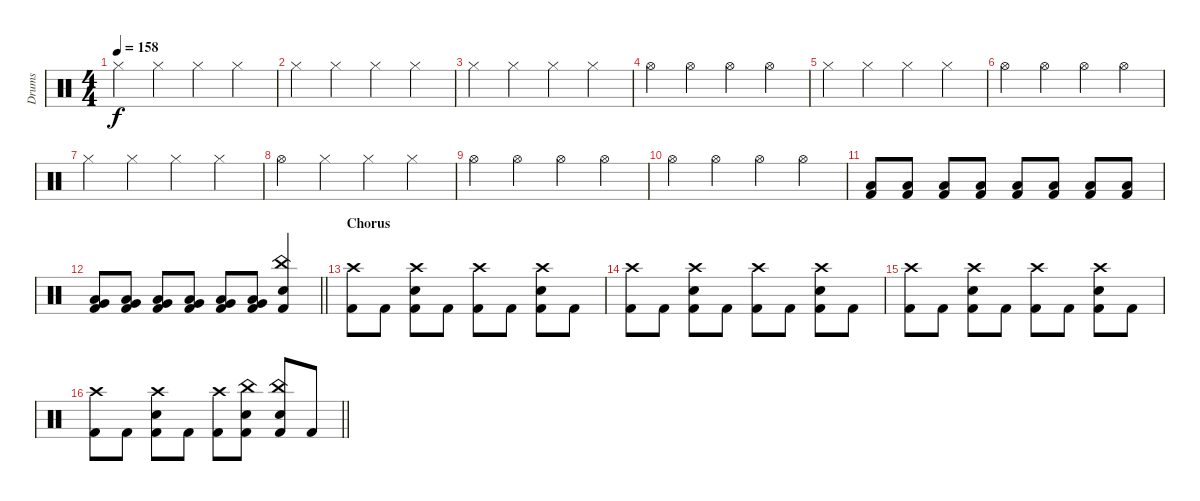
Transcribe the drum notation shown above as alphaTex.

\track ("Drums" "Drums") {instrument percussion}
\staff {score}
\articulation defaults
\ts (4 4)
\tempo 158
\clef neutral
\ks c "Hi-Hat (closed)".4{dy f} "Hi-Hat (closed)".4 "Hi-Hat (closed)".4 "Hi-Hat (closed)".4
|
"Hi-Hat (closed)".4 "Hi-Hat (closed)".4 "Hi-Hat (closed)".4 "Hi-Hat (closed)".4 |
"Hi-Hat (closed)".4 "Hi-Hat (closed)".4 "Hi-Hat (closed)".4 "Hi-Hat (closed)".4 |
"Hi-Hat (open)".4 "Hi-Hat (open)".4 "Hi-Hat (open)".4 "Hi-Hat (open)".4 |
"Hi-Hat (closed)".4 "Hi-Hat (closed)".4 "Hi-Hat (closed)".4 "Hi-Hat (closed)".4 |
"Hi-Hat (open)".4 "Hi-Hat (open)".4 "Hi-Hat (open)".4 "Hi-Hat (open)".4 |
"Hi-Hat (closed)".4 "Hi-Hat (closed)".4 "Hi-Hat (closed)".4 "Hi-Hat (closed)".4 |
"Hi-Hat (open)".4 "Hi-Hat (closed)".4 "Hi-Hat (closed)".4 "Hi-Hat (closed)".4 |
"Hi-Hat (open)".4 "Hi-Hat (open)".4 "Hi-Hat (open)".4 "Hi-Hat (open)".4 |
"Hi-Hat (open)".4 "Hi-Hat (open)".4 "Hi-Hat (open)".4 "Hi-Hat (open)".4 |
("Low Floor Tom (hit)" "Kick (hit) 2").8 ("Low Floor Tom (hit)" "Kick (hit) 2").8 ("Low Floor Tom (hit)" "Kick (hit) 2").8 ("Low Floor Tom (hit)" "Kick (hit) 2").8 ("Low Floor Tom (hit)" "Kick (hit) 2").8 ("Low Floor Tom (hit)" "Kick (hit) 2").8 ("Low Floor Tom (hit)" "Kick (hit) 2").8 ("Low Floor Tom (hit)" "Kick (hit) 2").8 |
\barLineRight lightlight
("Very Low Tom (hit)" "Low Floor Tom (hit)" "Kick (hit) 2").8 ("Very Low Tom (hit)" "Low Floor Tom (hit)" "Kick (hit) 2").8 ("Very Low Tom (hit)" "Low Floor Tom (hit)" "Kick (hit) 2").8 ("Very Low Tom (hit)" "Low Floor Tom (hit)" "Kick (hit) 2").8 ("Very Low Tom (hit)" "Low Floor Tom (hit)" "Kick (hit) 2").8 ("Very Low Tom (hit)" "Low Floor Tom (hit)" "Kick (hit) 2").8 ("China (hit)" "Snare (hit) 2" "Kick (hit) 2").4 |
\section ("" "Chorus")
("Crash high (hit)" "Kick (hit) 2").8 "Kick (hit) 2".8 ("Crash high (hit)" "Snare (hit) 2" "Kick (hit) 2").8 "Kick (hit) 2".8 ("Crash high (hit)" "Kick (hit) 2").8 "Kick (hit) 2".8 ("Crash high (hit)" "Snare (hit) 2" "Kick (hit) 2").8 "Kick (hit) 2".8 |
("Crash high (hit)" "Kick (hit) 2").8 "Kick (hit) 2".8 ("Crash high (hit)" "Snare (hit) 2" "Kick (hit) 2").8 "Kick (hit) 2".8 ("Crash high (hit)" "Kick (hit) 2").8 "Kick (hit) 2".8 ("Crash high (hit)" "Snare (hit) 2" "Kick (hit) 2").8 "Kick (hit) 2".8 |
("Crash high (hit)" "Kick (hit) 2").8 "Kick (hit) 2".8 ("Crash high (hit)" "Snare (hit) 2" "Kick (hit) 2").8 "Kick (hit) 2".8 ("Crash high (hit)" "Kick (hit) 2").8 "Kick (hit) 2".8 ("Crash high (hit)" "Snare (hit) 2" "Kick (hit) 2").8 "Kick (hit) 2".8 |
\barLineRight lightlight
("Crash high (hit)" "Kick (hit) 2").8 "Kick (hit) 2".8 ("Crash high (hit)" "Snare (hit) 2" "Kick (hit) 2").8 "Kick (hit) 2".8 ("Crash high (hit)" "Kick (hit) 2").8 ("China (hit)" "Snare (hit) 2" "Kick (hit) 2").8 ("China (hit)" "Snare (hit) 2" "Kick (hit) 2").8 "Kick (hit) 2".8
